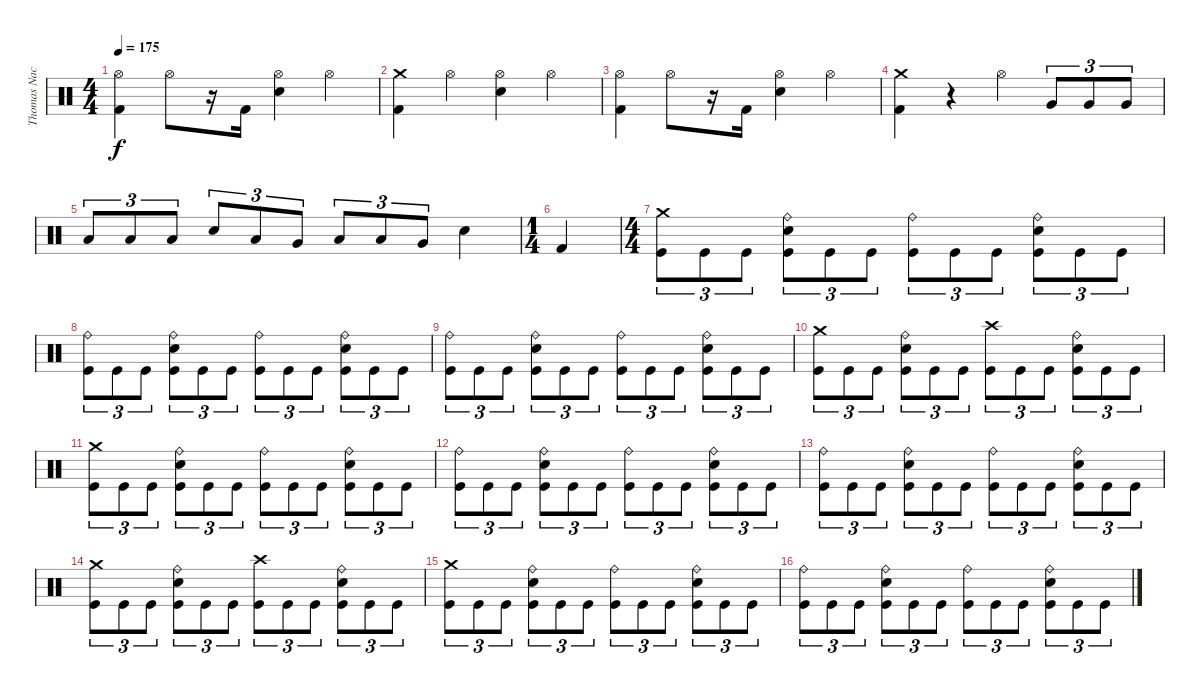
\track ("Thomas Nack" "Thomas Nac") {instrument percussion}
\staff {score}
\articulation defaults
\ts (4 4)
\tempo 175
\clef neutral
\ks c
("Hi-Hat (open)" "Kick (hit) 2").4{dy f} "Hi-Hat (open)".8 r.16 "Kick (hit) 2".16 ("Hi-Hat (open)" "Electric Snare (hit)").4 "Hi-Hat (open)".4 |
("Crash medium (hit)" "Kick (hit) 2").4 "Hi-Hat (open)".4 ("Hi-Hat (open)" "Electric Snare (hit)").4 "Hi-Hat (open)".4 |
("Hi-Hat (open)" "Kick (hit) 2").4 "Hi-Hat (open)".8 r.16 "Kick (hit) 2".16 ("Hi-Hat (open)" "Electric Snare (hit)").4 "Hi-Hat (open)".4 |
("Crash medium (hit)" "Kick (hit) 2").4 r.4 "Hi-Hat (open)".4 "Very Low Tom (hit)".8{tu (3 2)} "Very Low Tom (hit)".8{tu (3 2)} "Very Low Tom (hit)".8{tu (3 2)} |
"Low Tom (hit)".8{tu (3 2)} "Low Tom (hit)".8{tu (3 2)} "Low Tom (hit)".8{tu (3 2)} "Electric Snare (hit)".8{tu (3 2)} "Low Tom (hit)".8{tu (3 2)} "Very Low Tom (hit)".8{tu (3 2)} "Low Tom (hit)".8{tu (3 2)} "Low Tom (hit)".8{tu (3 2)} "Very Low Tom (hit)".8{tu (3 2)} "Electric Snare (hit)".4 |
\ts (1 4)
"Kick (hit) 2".4 |
\ts (4 4)
("Crash medium (hit)" "Kick (hit)").8{tu (3 2)} "Kick (hit)".8{tu (3 2)} "Kick (hit)".8{tu (3 2)} ("Ride (bell)" "Electric Snare (hit)" "Kick (hit)").8{tu (3 2)} "Kick (hit)".8{tu (3 2)} "Kick (hit)".8{tu (3 2)} ("Ride (bell)" "Kick (hit)").8{tu (3 2)} "Kick (hit)".8{tu (3 2)} "Kick (hit)".8{tu (3 2)} ("Ride (bell)" "Electric Snare (hit)" "Kick (hit)").8{tu (3 2)} "Kick (hit)".8{tu (3 2)} "Kick (hit)".8{tu (3 2)} |
("Ride (bell)" "Kick (hit)").8{tu (3 2)} "Kick (hit)".8{tu (3 2)} "Kick (hit)".8{tu (3 2)} ("Ride (bell)" "Electric Snare (hit)" "Kick (hit)").8{tu (3 2)} "Kick (hit)".8{tu (3 2)} "Kick (hit)".8{tu (3 2)} ("Ride (bell)" "Kick (hit)").8{tu (3 2)} "Kick (hit)".8{tu (3 2)} "Kick (hit)".8{tu (3 2)} ("Ride (bell)" "Electric Snare (hit)" "Kick (hit)").8{tu (3 2)} "Kick (hit)".8{tu (3 2)} "Kick (hit)".8{tu (3 2)} |
("Ride (bell)" "Kick (hit)").8{tu (3 2)} "Kick (hit)".8{tu (3 2)} "Kick (hit)".8{tu (3 2)} ("Ride (bell)" "Electric Snare (hit)" "Kick (hit)").8{tu (3 2)} "Kick (hit)".8{tu (3 2)} "Kick (hit)".8{tu (3 2)} ("Ride (bell)" "Kick (hit)").8{tu (3 2)} "Kick (hit)".8{tu (3 2)} "Kick (hit)".8{tu (3 2)} ("Ride (bell)" "Electric Snare (hit)" "Kick (hit)").8{tu (3 2)} "Kick (hit)".8{tu (3 2)} "Kick (hit)".8{tu (3 2)} |
("Crash medium (hit)" "Kick (hit)").8{tu (3 2)} "Kick (hit)".8{tu (3 2)} "Kick (hit)".8{tu (3 2)} ("Ride (bell)" "Electric Snare (hit)" "Kick (hit)").8{tu (3 2)} "Kick (hit)".8{tu (3 2)} "Kick (hit)".8{tu (3 2)} ("Crash high (hit)" "Kick (hit)").8{tu (3 2)} "Kick (hit)".8{tu (3 2)} "Kick (hit)".8{tu (3 2)} ("Ride (bell)" "Electric Snare (hit)" "Kick (hit)").8{tu (3 2)} "Kick (hit)".8{tu (3 2)} "Kick (hit)".8{tu (3 2)} |
("Crash medium (hit)" "Kick (hit)").8{tu (3 2)} "Kick (hit)".8{tu (3 2)} "Kick (hit)".8{tu (3 2)} ("Ride (bell)" "Electric Snare (hit)" "Kick (hit)").8{tu (3 2)} "Kick (hit)".8{tu (3 2)} "Kick (hit)".8{tu (3 2)} ("Ride (bell)" "Kick (hit)").8{tu (3 2)} "Kick (hit)".8{tu (3 2)} "Kick (hit)".8{tu (3 2)} ("Ride (bell)" "Electric Snare (hit)" "Kick (hit)").8{tu (3 2)} "Kick (hit)".8{tu (3 2)} "Kick (hit)".8{tu (3 2)} |
("Ride (bell)" "Kick (hit)").8{tu (3 2)} "Kick (hit)".8{tu (3 2)} "Kick (hit)".8{tu (3 2)} ("Ride (bell)" "Electric Snare (hit)" "Kick (hit)").8{tu (3 2)} "Kick (hit)".8{tu (3 2)} "Kick (hit)".8{tu (3 2)} ("Ride (bell)" "Kick (hit)").8{tu (3 2)} "Kick (hit)".8{tu (3 2)} "Kick (hit)".8{tu (3 2)} ("Ride (bell)" "Electric Snare (hit)" "Kick (hit)").8{tu (3 2)} "Kick (hit)".8{tu (3 2)} "Kick (hit)".8{tu (3 2)} |
("Ride (bell)" "Kick (hit)").8{tu (3 2)} "Kick (hit)".8{tu (3 2)} "Kick (hit)".8{tu (3 2)} ("Ride (bell)" "Electric Snare (hit)" "Kick (hit)").8{tu (3 2)} "Kick (hit)".8{tu (3 2)} "Kick (hit)".8{tu (3 2)} ("Ride (bell)" "Kick (hit)").8{tu (3 2)} "Kick (hit)".8{tu (3 2)} "Kick (hit)".8{tu (3 2)} ("Ride (bell)" "Electric Snare (hit)" "Kick (hit)").8{tu (3 2)} "Kick (hit)".8{tu (3 2)} "Kick (hit)".8{tu (3 2)} |
("Crash medium (hit)" "Kick (hit)").8{tu (3 2)} "Kick (hit)".8{tu (3 2)} "Kick (hit)".8{tu (3 2)} ("Ride (bell)" "Electric Snare (hit)" "Kick (hit)").8{tu (3 2)} "Kick (hit)".8{tu (3 2)} "Kick (hit)".8{tu (3 2)} ("Crash high (hit)" "Kick (hit)").8{tu (3 2)} "Kick (hit)".8{tu (3 2)} "Kick (hit)".8{tu (3 2)} ("Ride (bell)" "Electric Snare (hit)" "Kick (hit)").8{tu (3 2)} "Kick (hit)".8{tu (3 2)} "Kick (hit)".8{tu (3 2)} |
("Crash medium (hit)" "Kick (hit)").8{tu (3 2)} "Kick (hit)".8{tu (3 2)} "Kick (hit)".8{tu (3 2)} ("Ride (bell)" "Electric Snare (hit)" "Kick (hit)").8{tu (3 2)} "Kick (hit)".8{tu (3 2)} "Kick (hit)".8{tu (3 2)} ("Ride (bell)" "Kick (hit)").8{tu (3 2)} "Kick (hit)".8{tu (3 2)} "Kick (hit)".8{tu (3 2)} ("Ride (bell)" "Electric Snare (hit)" "Kick (hit)").8{tu (3 2)} "Kick (hit)".8{tu (3 2)} "Kick (hit)".8{tu (3 2)} |
("Ride (bell)" "Kick (hit)").8{tu (3 2)} "Kick (hit)".8{tu (3 2)} "Kick (hit)".8{tu (3 2)} ("Ride (bell)" "Electric Snare (hit)" "Kick (hit)").8{tu (3 2)} "Kick (hit)".8{tu (3 2)} "Kick (hit)".8{tu (3 2)} ("Ride (bell)" "Kick (hit)").8{tu (3 2)} "Kick (hit)".8{tu (3 2)} "Kick (hit)".8{tu (3 2)} ("Ride (bell)" "Electric Snare (hit)" "Kick (hit)").8{tu (3 2)} "Kick (hit)".8{tu (3 2)} "Kick (hit)".8{tu (3 2)}
